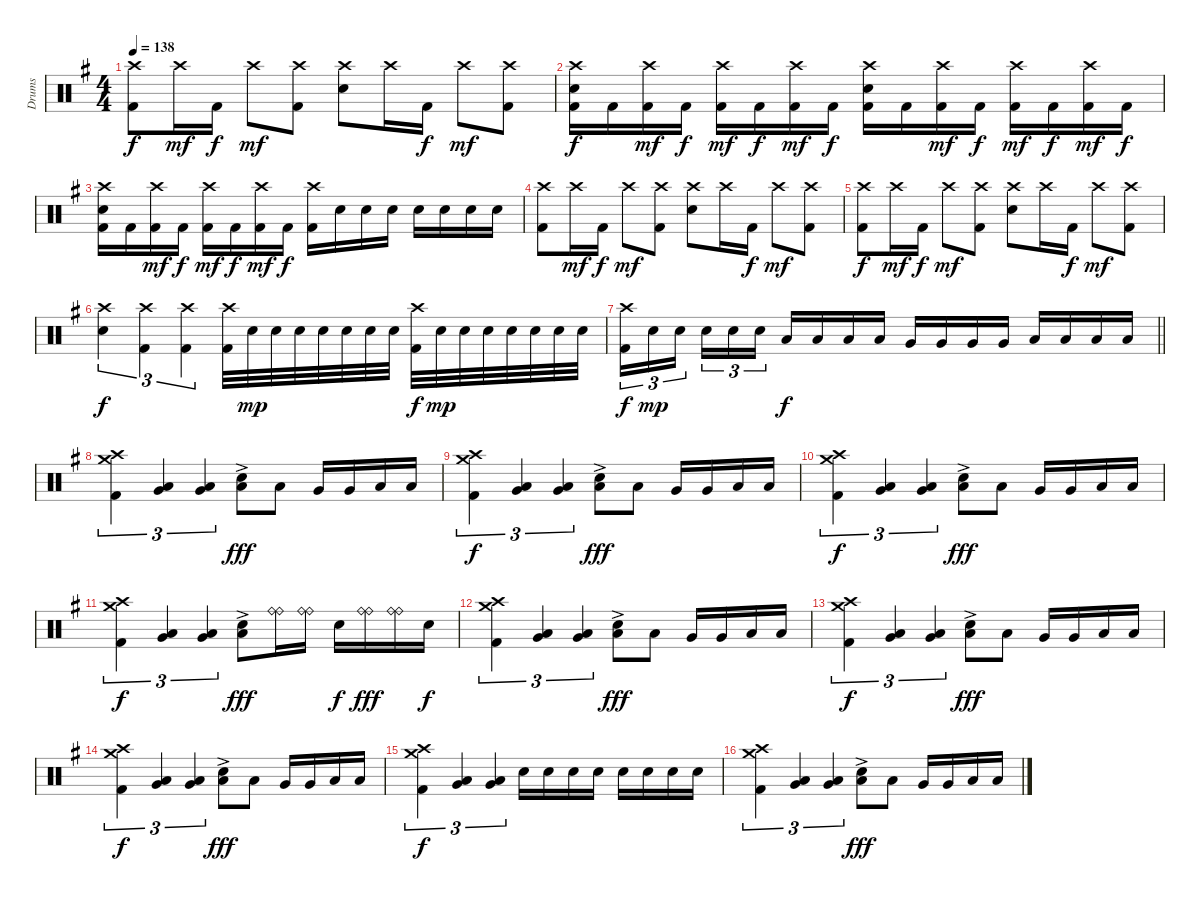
\track ("Drums" "Drums") {instrument percussion}
\staff {score}
\articulation defaults
\ts (4 4)
\tempo 138
\clef neutral
\ks eminor
("Crash high (hit)" "Kick (hit) 2").8{dy f} "Crash high (hit)".16{dy mf} "Kick (hit) 2".16{dy f} "Crash high (hit)".8{dy mf} ("Crash high (hit)" "Kick (hit) 2").8 ("Crash high (hit)" "Snare (hit) 2").8 "Crash high (hit)".16 "Kick (hit) 2".16{dy f} "Crash high (hit)".8{dy mf} ("Crash high (hit)" "Kick (hit) 2").8 |
("Crash high (hit)" "Snare (hit) 2" "Kick (hit) 2").16{dy f} "Kick (hit) 2".16 ("Crash high (hit)" "Kick (hit) 2").16{dy mf} "Kick (hit) 2".16{dy f} ("Crash high (hit)" "Kick (hit) 2").16{dy mf} "Kick (hit) 2".16{dy f} ("Crash high (hit)" "Kick (hit) 2").16{dy mf} "Kick (hit) 2".16{dy f} ("Crash high (hit)" "Snare (hit) 2" "Kick (hit) 2").16 "Kick (hit) 2".16 ("Crash high (hit)" "Kick (hit) 2").16{dy mf} "Kick (hit) 2".16{dy f} ("Crash high (hit)" "Kick (hit) 2").16{dy mf} "Kick (hit) 2".16{dy f} ("Crash high (hit)" "Kick (hit) 2").16{dy mf} "Kick (hit) 2".16{dy f} |
("Crash high (hit)" "Snare (hit) 2" "Kick (hit) 2").16 "Kick (hit) 2".16 ("Crash high (hit)" "Kick (hit) 2").16{dy mf} "Kick (hit) 2".16{dy f} ("Crash high (hit)" "Kick (hit) 2").16{dy mf} "Kick (hit) 2".16{dy f} ("Crash high (hit)" "Kick (hit) 2").16{dy mf} "Kick (hit) 2".16{dy f} ("Crash high (hit)" "Kick (hit) 2").16 "Snare (hit) 2".16 "Snare (hit) 2".16 "Snare (hit) 2".16 "Snare (hit) 2".16 "Snare (hit) 2".16 "Snare (hit) 2".16 "Snare (hit) 2".16 |
("Crash high (hit)" "Kick (hit) 2").8 "Crash high (hit)".16{dy mf} "Kick (hit) 2".16{dy f} "Crash high (hit)".8{dy mf} ("Crash high (hit)" "Kick (hit) 2").8 ("Crash high (hit)" "Snare (hit) 2").8 "Crash high (hit)".16 "Kick (hit) 2".16{dy f} "Crash high (hit)".8{dy mf} ("Crash high (hit)" "Kick (hit) 2").8 |
("Crash high (hit)" "Kick (hit) 2").8{dy f} "Crash high (hit)".16{dy mf} "Kick (hit) 2".16{dy f} "Crash high (hit)".8{dy mf} ("Crash high (hit)" "Kick (hit) 2").8 ("Crash high (hit)" "Snare (hit) 2").8 "Crash high (hit)".16 "Kick (hit) 2".16{dy f} "Crash high (hit)".8{dy mf} ("Crash high (hit)" "Kick (hit) 2").8 |
("Crash high (hit)" "Snare (hit) 2").4{tu (3 2) dy f} ("Crash high (hit)" "Kick (hit) 2").4{tu (3 2)} ("Crash high (hit)" "Kick (hit) 2").4{tu (3 2)} ("Crash high (hit)" "Kick (hit) 2").32 "Snare (hit) 2".32{dy mp} "Snare (hit) 2".32 "Snare (hit) 2".32 "Snare (hit) 2".32 "Snare (hit) 2".32 "Snare (hit) 2".32 "Snare (hit) 2".32 ("Crash high (hit)" "Kick (hit) 2").32{dy f} "Snare (hit) 2".32{dy mp} "Snare (hit) 2".32 "Snare (hit) 2".32 "Snare (hit) 2".32 "Snare (hit) 2".32 "Snare (hit) 2".32 "Snare (hit) 2".32 |
\barLineRight lightlight
("Crash high (hit)" "Kick (hit) 2").16{tu (3 2) dy f} "Snare (hit) 2".16{tu (3 2) dy mp} "Snare (hit) 2".16{tu (3 2)} "Snare (hit) 2".16{tu (3 2)} "Snare (hit) 2".16{tu (3 2)} "Snare (hit) 2".16{tu (3 2)} "Low Tom (hit)".16{dy f} "Low Tom (hit)".16 "Low Tom (hit)".16 "Low Tom (hit)".16 "Very Low Tom (hit)".16 "Very Low Tom (hit)".16 "Very Low Tom (hit)".16 "Very Low Tom (hit)".16 "Low Floor Tom (hit)".16 "Low Floor Tom (hit)".16 "Low Floor Tom (hit)".16 "Low Floor Tom (hit)".16 |
("Crash high (hit)" "Crash medium (hit)" "Kick (hit) 2").4{tu (3 2)} ("Low Tom (hit)" "Very Low Tom (hit)").4{tu (3 2)} ("Very Low Tom (hit)" "Low Floor Tom (hit)").4{tu (3 2)} ("Snare (hit) 2"{ac} "Low Floor Tom (hit)").8{dy fff} "Low Tom (hit)".8 "Very Low Tom (hit)".16 "Very Low Tom (hit)".16 "Low Floor Tom (hit)".16 "Low Floor Tom (hit)".16 |
("Crash high (hit)" "Crash medium (hit)" "Kick (hit) 2").4{tu (3 2) dy f} ("Low Tom (hit)" "Very Low Tom (hit)").4{tu (3 2)} ("Very Low Tom (hit)" "Low Floor Tom (hit)").4{tu (3 2)} ("Snare (hit) 2"{ac} "Low Floor Tom (hit)").8{dy fff} "Low Tom (hit)".8 "Very Low Tom (hit)".16 "Very Low Tom (hit)".16 "Low Floor Tom (hit)".16 "Low Floor Tom (hit)".16 |
("Crash high (hit)" "Crash medium (hit)" "Kick (hit) 2").4{tu (3 2) dy f} ("Low Tom (hit)" "Very Low Tom (hit)").4{tu (3 2)} ("Very Low Tom (hit)" "Low Floor Tom (hit)").4{tu (3 2)} ("Snare (hit) 2"{ac} "Low Floor Tom (hit)").8{dy fff} "Low Tom (hit)".8 "Very Low Tom (hit)".16 "Very Low Tom (hit)".16 "Low Floor Tom (hit)".16 "Low Floor Tom (hit)".16 |
("Crash high (hit)" "Crash medium (hit)" "Kick (hit) 2").4{tu (3 2) dy f} ("Low Tom (hit)" "Very Low Tom (hit)").4{tu (3 2)} ("Very Low Tom (hit)" "Low Floor Tom (hit)").4{tu (3 2)} ("Snare (hit) 2"{ac} "Low Floor Tom (hit)").8{dy fff} ("Ride (bell)" "Ride (bell)").16 ("Ride (bell)" "Ride (bell)").16 "Snare (hit) 2".16{dy f} ("Ride (bell)" "Ride (bell)").16{dy fff} ("Ride (bell)" "Ride (bell)").16 "Snare (hit) 2".16{dy f} |
("Crash high (hit)" "Crash medium (hit)" "Kick (hit) 2").4{tu (3 2)} ("Low Tom (hit)" "Very Low Tom (hit)").4{tu (3 2)} ("Very Low Tom (hit)" "Low Floor Tom (hit)").4{tu (3 2)} ("Snare (hit) 2"{ac} "Low Floor Tom (hit)").8{dy fff} "Low Tom (hit)".8 "Very Low Tom (hit)".16 "Very Low Tom (hit)".16 "Low Floor Tom (hit)".16 "Low Floor Tom (hit)".16 |
("Crash high (hit)" "Crash medium (hit)" "Kick (hit) 2").4{tu (3 2) dy f} ("Low Tom (hit)" "Very Low Tom (hit)").4{tu (3 2)} ("Very Low Tom (hit)" "Low Floor Tom (hit)").4{tu (3 2)} ("Snare (hit) 2"{ac} "Low Floor Tom (hit)").8{dy fff} "Low Tom (hit)".8 "Very Low Tom (hit)".16 "Very Low Tom (hit)".16 "Low Floor Tom (hit)".16 "Low Floor Tom (hit)".16 |
("Crash high (hit)" "Crash medium (hit)" "Kick (hit) 2").4{tu (3 2) dy f} ("Low Tom (hit)" "Very Low Tom (hit)").4{tu (3 2)} ("Very Low Tom (hit)" "Low Floor Tom (hit)").4{tu (3 2)} ("Snare (hit) 2"{ac} "Low Floor Tom (hit)").8{dy fff} "Low Tom (hit)".8 "Very Low Tom (hit)".16 "Very Low Tom (hit)".16 "Low Floor Tom (hit)".16 "Low Floor Tom (hit)".16 |
("Crash high (hit)" "Crash medium (hit)" "Kick (hit) 2").4{tu (3 2) dy f} ("Low Tom (hit)" "Very Low Tom (hit)").4{tu (3 2)} ("Very Low Tom (hit)" "Low Floor Tom (hit)").4{tu (3 2)} "Snare (hit) 2".16 "Snare (hit) 2".16 "Snare (hit) 2".16 "Snare (hit) 2".16 "Snare (hit) 2".16 "Snare (hit) 2".16 "Snare (hit) 2".16 "Snare (hit) 2".16 |
("Crash high (hit)" "Crash medium (hit)" "Kick (hit) 2").4{tu (3 2)} ("Low Tom (hit)" "Very Low Tom (hit)").4{tu (3 2)} ("Very Low Tom (hit)" "Low Floor Tom (hit)").4{tu (3 2)} ("Snare (hit) 2"{ac} "Low Floor Tom (hit)").8{dy fff} "Low Tom (hit)".8 "Very Low Tom (hit)".16 "Very Low Tom (hit)".16 "Low Floor Tom (hit)".16 "Low Floor Tom (hit)".16
